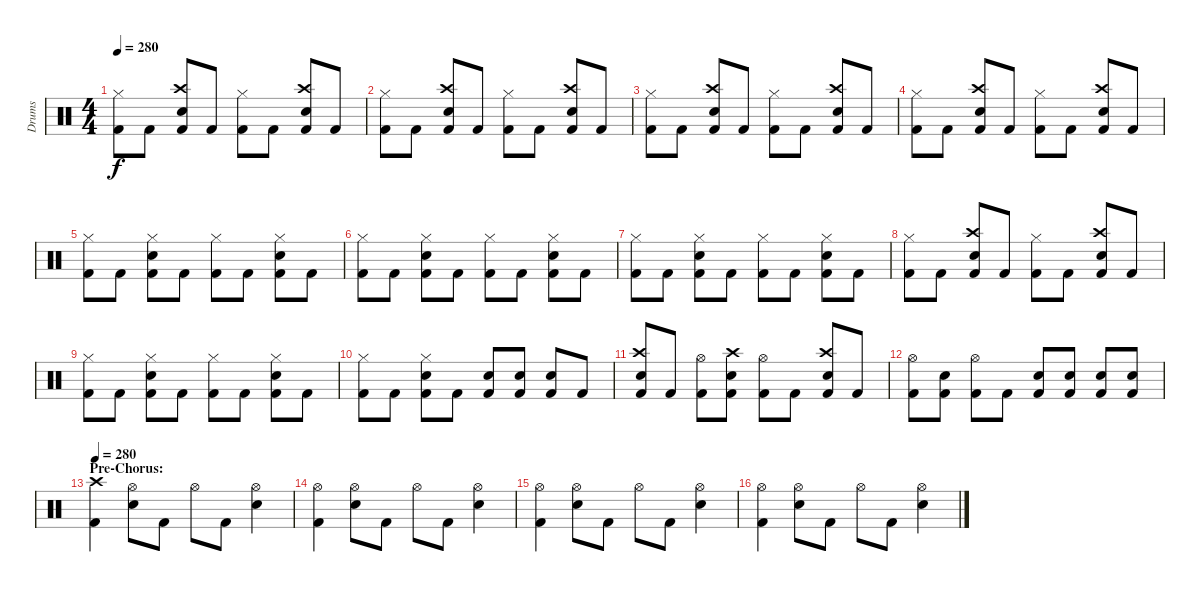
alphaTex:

\track ("Drums" "Drums") {instrument percussion}
\staff {score}
\articulation defaults
\ts (4 4)
\tempo 280
\clef neutral
\ks c
("Hi-Hat (closed)" "Kick (hit) 2").8{dy f} "Kick (hit) 2".8 ("Crash high (hit)" "Snare (hit) 2" "Kick (hit) 2").8 "Kick (hit) 2".8 ("Hi-Hat (closed)" "Kick (hit) 2").8 "Kick (hit) 2".8 ("Crash high (hit)" "Snare (hit) 2" "Kick (hit) 2").8 "Kick (hit) 2".8 |
("Hi-Hat (closed)" "Kick (hit) 2").8 "Kick (hit) 2".8 ("Crash high (hit)" "Snare (hit) 2" "Kick (hit) 2").8 "Kick (hit) 2".8 ("Hi-Hat (closed)" "Kick (hit) 2").8 "Kick (hit) 2".8 ("Crash high (hit)" "Snare (hit) 2" "Kick (hit) 2").8 "Kick (hit) 2".8 |
("Hi-Hat (closed)" "Kick (hit) 2").8 "Kick (hit) 2".8 ("Crash high (hit)" "Snare (hit) 2" "Kick (hit) 2").8 "Kick (hit) 2".8 ("Hi-Hat (closed)" "Kick (hit) 2").8 "Kick (hit) 2".8 ("Crash high (hit)" "Snare (hit) 2" "Kick (hit) 2").8 "Kick (hit) 2".8 |
("Hi-Hat (closed)" "Kick (hit) 2").8 "Kick (hit) 2".8 ("Crash high (hit)" "Snare (hit) 2" "Kick (hit) 2").8 "Kick (hit) 2".8 ("Hi-Hat (closed)" "Kick (hit) 2").8 "Kick (hit) 2".8 ("Crash high (hit)" "Snare (hit) 2" "Kick (hit) 2").8 "Kick (hit) 2".8 |
("Hi-Hat (closed)" "Kick (hit) 2").8 "Kick (hit) 2".8 ("Hi-Hat (closed)" "Snare (hit) 2" "Kick (hit) 2").8 "Kick (hit) 2".8 ("Hi-Hat (closed)" "Kick (hit) 2").8 "Kick (hit) 2".8 ("Hi-Hat (closed)" "Snare (hit) 2" "Kick (hit) 2").8 "Kick (hit) 2".8 |
("Hi-Hat (closed)" "Kick (hit) 2").8 "Kick (hit) 2".8 ("Hi-Hat (closed)" "Snare (hit) 2" "Kick (hit) 2").8 "Kick (hit) 2".8 ("Hi-Hat (closed)" "Kick (hit) 2").8 "Kick (hit) 2".8 ("Hi-Hat (closed)" "Snare (hit) 2" "Kick (hit) 2").8 "Kick (hit) 2".8 |
("Hi-Hat (closed)" "Kick (hit) 2").8 "Kick (hit) 2".8 ("Hi-Hat (closed)" "Snare (hit) 2" "Kick (hit) 2").8 "Kick (hit) 2".8 ("Hi-Hat (closed)" "Kick (hit) 2").8 "Kick (hit) 2".8 ("Hi-Hat (closed)" "Snare (hit) 2" "Kick (hit) 2").8 "Kick (hit) 2".8 |
("Hi-Hat (closed)" "Kick (hit) 2").8 "Kick (hit) 2".8 ("Crash high (hit)" "Snare (hit) 2" "Kick (hit) 2").8 "Kick (hit) 2".8 ("Hi-Hat (closed)" "Kick (hit) 2").8 "Kick (hit) 2".8 ("Crash high (hit)" "Snare (hit) 2" "Kick (hit) 2").8 "Kick (hit) 2".8 |
("Hi-Hat (closed)" "Kick (hit) 2").8 "Kick (hit) 2".8 ("Hi-Hat (closed)" "Snare (hit) 2" "Kick (hit) 2").8 "Kick (hit) 2".8 ("Hi-Hat (closed)" "Kick (hit) 2").8 "Kick (hit) 2".8 ("Hi-Hat (closed)" "Snare (hit) 2" "Kick (hit) 2").8 "Kick (hit) 2".8 |
("Hi-Hat (closed)" "Kick (hit) 2").8 "Kick (hit) 2".8 ("Hi-Hat (closed)" "Snare (hit) 2" "Kick (hit) 2").8 "Kick (hit) 2".8 ("Snare (hit) 2" "Kick (hit) 2").8 ("Snare (hit) 2" "Kick (hit) 2").8 ("Snare (hit) 2" "Kick (hit) 2").8 "Kick (hit) 2".8 |
("Crash high (hit)" "Snare (hit) 2" "Kick (hit) 2").8 "Kick (hit) 2".8 ("Hi-Hat (open)" "Kick (hit) 2").8 ("Crash high (hit)" "Snare (hit) 2" "Kick (hit) 2").8 ("Hi-Hat (open)" "Kick (hit) 2").8 "Kick (hit) 2".8 ("Crash high (hit)" "Snare (hit) 2" "Kick (hit) 2").8 "Kick (hit) 2".8 |
("Hi-Hat (open)" "Kick (hit) 2").8 ("Snare (hit) 2" "Kick (hit) 2").8 ("Hi-Hat (open)" "Kick (hit) 2").8 "Kick (hit) 2".8 ("Snare (hit) 2" "Kick (hit) 2").8 ("Snare (hit) 2" "Kick (hit) 2").8 ("Snare (hit) 2" "Kick (hit) 2").8 ("Snare (hit) 2" "Kick (hit) 2").8 |
\section ("" "Pre-Chorus:")
\tempo 280
("Crash high (hit)" "Kick (hit) 2").4 ("Hi-Hat (open)" "Snare (hit) 2").8 "Kick (hit) 2".8 "Hi-Hat (open)".8 "Kick (hit) 2".8 ("Hi-Hat (open)" "Snare (hit) 2").4 |
("Hi-Hat (open)" "Kick (hit) 2").4 ("Hi-Hat (open)" "Snare (hit) 2").8 "Kick (hit) 2".8 "Hi-Hat (open)".8 "Kick (hit) 2".8 ("Hi-Hat (open)" "Snare (hit) 2").4 |
("Hi-Hat (open)" "Kick (hit) 2").4 ("Hi-Hat (open)" "Snare (hit) 2").8 "Kick (hit) 2".8 "Hi-Hat (open)".8 "Kick (hit) 2".8 ("Hi-Hat (open)" "Snare (hit) 2").4 |
("Hi-Hat (open)" "Kick (hit) 2").4 ("Hi-Hat (open)" "Snare (hit) 2").8 "Kick (hit) 2".8 "Hi-Hat (open)".8 "Kick (hit) 2".8 ("Hi-Hat (open)" "Snare (hit) 2").4
